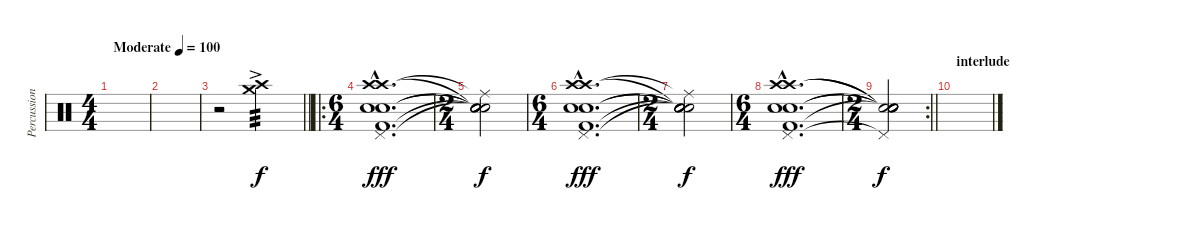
\track ("Percussions" "Percussion") {instrument percussion}
\staff {score}
\articulation defaults
\ts (4 4)
\tempo (100 "Moderate")
\clef neutral
\ks c
|
|
\barLineRight lightlight
r.2 ("Crash medium (hit)"{ac} "Crash high (hit)"{ac}).2{tp 3 volume 13} |
\ro
\ts (6 4)
\section ("" "")
("Crash high (hit)"{hac} "Crash high (hit)" "Snare (hit) 2"{hac} "Snare (hit) 2"{hac} "Pedal Hi-Hat (hit)"{hac} "Kick (hit) 2"{hac}).1{d dy fff} |
\ts (2 4)
("Snare (hit)"{t} "Ride (middle)"{t} "Snare (hit)"{t} "Snare (hit)"{t} "Snare (hit)"{t} "Snare (hit)"{t}).2{dy f} |
\ts (6 4)
("Crash high (hit)"{hac} "Crash high (hit)"{hac} "Snare (hit) 2"{hac} "Snare (hit) 2"{hac} "Pedal Hi-Hat (hit)"{hac} "Kick (hit) 2"{hac}).1{d dy fff} |
\ts (2 4)
("Snare (hit)"{t} "Ride (middle)"{t} "Snare (hit)"{t} "Snare (hit)"{t} "Snare (hit)"{t} "Snare (hit)"{t}).2{dy f} |
\ts (6 4)
("Crash high (hit)"{hac} "Crash high (hit)"{hac} "Snare (hit) 2"{hac} "Snare (hit) 2"{hac} "Pedal Hi-Hat (hit)"{hac} "Kick (hit) 2"{hac}).1{d dy fff} |
\rc 2
\ts (2 4)
\barLineRight lightlight
("Snare (hit)"{t} "Snare (hit)"{t} "Snare (hit)"{t} "Snare (hit)"{t} "Pedal Hi-Hat (hit)"{t} "Snare (hit)"{t}).2{dy f} |
\section ("" "interlude")
